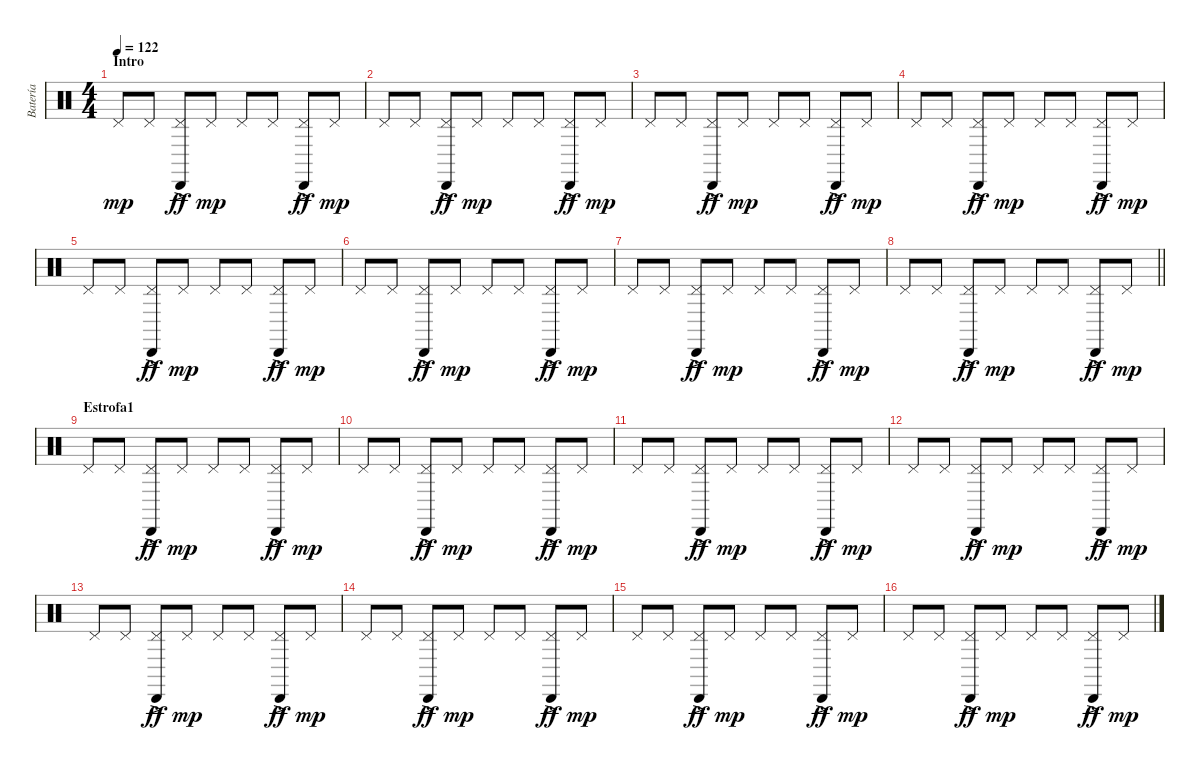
\track ("Batería" "Batería") {instrument percussion}
\staff {score}
\articulation defaults
\ts (4 4)
\section ("" "Intro")
\tempo 122
\clef neutral
\ks c "Pedal Hi-Hat (hit)".8{dy mp} "Pedal Hi-Hat (hit)".8
("Pedal Hi-Hat (hit)"{ac} "Cabasa (hit)").8{dy ff} "Pedal Hi-Hat (hit)".8{dy mp} "Pedal Hi-Hat (hit)".8 "Pedal Hi-Hat (hit)".8 ("Pedal Hi-Hat (hit)"{ac} "Cabasa (hit)").8{dy ff} "Pedal Hi-Hat (hit)".8{dy mp} |
"Pedal Hi-Hat (hit)".8 "Pedal Hi-Hat (hit)".8 ("Pedal Hi-Hat (hit)"{ac} "Cabasa (hit)").8{dy ff} "Pedal Hi-Hat (hit)".8{dy mp} "Pedal Hi-Hat (hit)".8 "Pedal Hi-Hat (hit)".8 ("Pedal Hi-Hat (hit)"{ac} "Cabasa (hit)").8{dy ff} "Pedal Hi-Hat (hit)".8{dy mp} |
"Pedal Hi-Hat (hit)".8 "Pedal Hi-Hat (hit)".8 ("Pedal Hi-Hat (hit)"{ac} "Cabasa (hit)").8{dy ff} "Pedal Hi-Hat (hit)".8{dy mp} "Pedal Hi-Hat (hit)".8 "Pedal Hi-Hat (hit)".8 ("Pedal Hi-Hat (hit)"{ac} "Cabasa (hit)").8{dy ff} "Pedal Hi-Hat (hit)".8{dy mp} |
"Pedal Hi-Hat (hit)".8 "Pedal Hi-Hat (hit)".8 ("Pedal Hi-Hat (hit)"{ac} "Cabasa (hit)").8{dy ff} "Pedal Hi-Hat (hit)".8{dy mp} "Pedal Hi-Hat (hit)".8 "Pedal Hi-Hat (hit)".8 ("Pedal Hi-Hat (hit)"{ac} "Cabasa (hit)").8{dy ff} "Pedal Hi-Hat (hit)".8{dy mp} |
"Pedal Hi-Hat (hit)".8 "Pedal Hi-Hat (hit)".8 ("Pedal Hi-Hat (hit)"{ac} "Cabasa (hit)").8{dy ff} "Pedal Hi-Hat (hit)".8{dy mp} "Pedal Hi-Hat (hit)".8 "Pedal Hi-Hat (hit)".8 ("Pedal Hi-Hat (hit)"{ac} "Cabasa (hit)").8{dy ff} "Pedal Hi-Hat (hit)".8{dy mp} |
"Pedal Hi-Hat (hit)".8 "Pedal Hi-Hat (hit)".8 ("Pedal Hi-Hat (hit)"{ac} "Cabasa (hit)").8{dy ff} "Pedal Hi-Hat (hit)".8{dy mp} "Pedal Hi-Hat (hit)".8 "Pedal Hi-Hat (hit)".8 ("Pedal Hi-Hat (hit)"{ac} "Cabasa (hit)").8{dy ff} "Pedal Hi-Hat (hit)".8{dy mp} |
"Pedal Hi-Hat (hit)".8 "Pedal Hi-Hat (hit)".8 ("Pedal Hi-Hat (hit)"{ac} "Cabasa (hit)").8{dy ff} "Pedal Hi-Hat (hit)".8{dy mp} "Pedal Hi-Hat (hit)".8 "Pedal Hi-Hat (hit)".8 ("Pedal Hi-Hat (hit)"{ac} "Cabasa (hit)").8{dy ff} "Pedal Hi-Hat (hit)".8{dy mp} |
\barLineRight lightlight "Pedal Hi-Hat (hit)".8 "Pedal Hi-Hat (hit)".8
("Pedal Hi-Hat (hit)"{ac} "Cabasa (hit)").8{dy ff} "Pedal Hi-Hat (hit)".8{dy mp} "Pedal Hi-Hat (hit)".8 "Pedal Hi-Hat (hit)".8 ("Pedal Hi-Hat (hit)"{ac} "Cabasa (hit)").8{dy ff} "Pedal Hi-Hat (hit)".8{dy mp} |
\section ("" "Estrofa1")
"Pedal Hi-Hat (hit)".8 "Pedal Hi-Hat (hit)".8 ("Pedal Hi-Hat (hit)"{ac} "Cabasa (hit)").8{dy ff} "Pedal Hi-Hat (hit)".8{dy mp} "Pedal Hi-Hat (hit)".8 "Pedal Hi-Hat (hit)".8 ("Pedal Hi-Hat (hit)"{ac} "Cabasa (hit)").8{dy ff} "Pedal Hi-Hat (hit)".8{dy mp} |
"Pedal Hi-Hat (hit)".8 "Pedal Hi-Hat (hit)".8 ("Pedal Hi-Hat (hit)"{ac} "Cabasa (hit)").8{dy ff} "Pedal Hi-Hat (hit)".8{dy mp} "Pedal Hi-Hat (hit)".8 "Pedal Hi-Hat (hit)".8 ("Pedal Hi-Hat (hit)"{ac} "Cabasa (hit)").8{dy ff} "Pedal Hi-Hat (hit)".8{dy mp} |
"Pedal Hi-Hat (hit)".8 "Pedal Hi-Hat (hit)".8 ("Pedal Hi-Hat (hit)"{ac} "Cabasa (hit)").8{dy ff} "Pedal Hi-Hat (hit)".8{dy mp} "Pedal Hi-Hat (hit)".8 "Pedal Hi-Hat (hit)".8 ("Pedal Hi-Hat (hit)"{ac} "Cabasa (hit)").8{dy ff} "Pedal Hi-Hat (hit)".8{dy mp} |
"Pedal Hi-Hat (hit)".8 "Pedal Hi-Hat (hit)".8 ("Pedal Hi-Hat (hit)"{ac} "Cabasa (hit)").8{dy ff} "Pedal Hi-Hat (hit)".8{dy mp} "Pedal Hi-Hat (hit)".8 "Pedal Hi-Hat (hit)".8 ("Pedal Hi-Hat (hit)"{ac} "Cabasa (hit)").8{dy ff} "Pedal Hi-Hat (hit)".8{dy mp} |
"Pedal Hi-Hat (hit)".8 "Pedal Hi-Hat (hit)".8 ("Pedal Hi-Hat (hit)"{ac} "Cabasa (hit)").8{dy ff} "Pedal Hi-Hat (hit)".8{dy mp} "Pedal Hi-Hat (hit)".8 "Pedal Hi-Hat (hit)".8 ("Pedal Hi-Hat (hit)"{ac} "Cabasa (hit)").8{dy ff} "Pedal Hi-Hat (hit)".8{dy mp} |
"Pedal Hi-Hat (hit)".8 "Pedal Hi-Hat (hit)".8 ("Pedal Hi-Hat (hit)"{ac} "Cabasa (hit)").8{dy ff} "Pedal Hi-Hat (hit)".8{dy mp} "Pedal Hi-Hat (hit)".8 "Pedal Hi-Hat (hit)".8 ("Pedal Hi-Hat (hit)"{ac} "Cabasa (hit)").8{dy ff} "Pedal Hi-Hat (hit)".8{dy mp} |
"Pedal Hi-Hat (hit)".8 "Pedal Hi-Hat (hit)".8 ("Pedal Hi-Hat (hit)"{ac} "Cabasa (hit)").8{dy ff} "Pedal Hi-Hat (hit)".8{dy mp} "Pedal Hi-Hat (hit)".8 "Pedal Hi-Hat (hit)".8 ("Pedal Hi-Hat (hit)"{ac} "Cabasa (hit)").8{dy ff} "Pedal Hi-Hat (hit)".8{dy mp} |
"Pedal Hi-Hat (hit)".8 "Pedal Hi-Hat (hit)".8 ("Pedal Hi-Hat (hit)"{ac} "Cabasa (hit)").8{dy ff} "Pedal Hi-Hat (hit)".8{dy mp} "Pedal Hi-Hat (hit)".8 "Pedal Hi-Hat (hit)".8 ("Pedal Hi-Hat (hit)"{ac} "Cabasa (hit)").8{dy ff} "Pedal Hi-Hat (hit)".8{dy mp}
